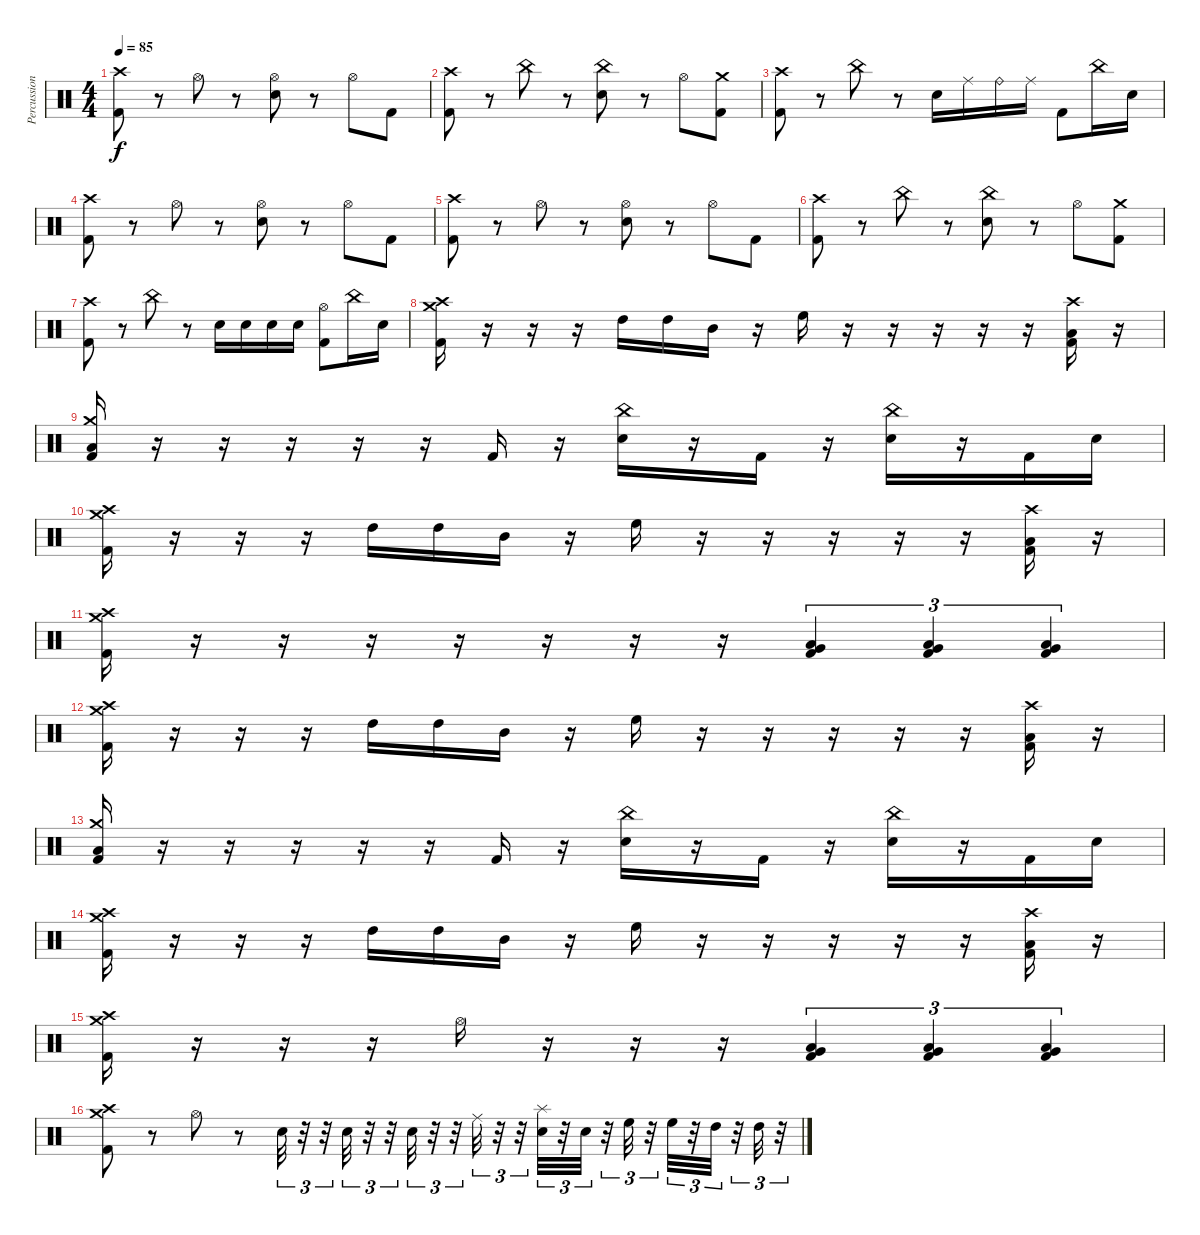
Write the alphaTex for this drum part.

\track ("Percussion" "Percussion") {instrument percussion}
\staff {score}
\articulation defaults
\ts (4 4)
\tempo 85
\clef neutral
\ks c
("Crash high (hit)" "Kick (hit) 2").8{dy f} r.8 "Hi-Hat (open)".8 r.8 ("Hi-Hat (open)" "Electric Snare (hit)").8 r.8 "Hi-Hat (open)".8 "Kick (hit) 2".8 |
("Crash high (hit)" "Kick (hit) 2").8 r.8 "China (hit)".8 r.8 ("China (hit)" "Electric Snare (hit)").8 r.8 "Hi-Hat (open)".8 ("Crash medium (hit)" "Kick (hit) 2").8 |
("Crash high (hit)" "Kick (hit) 2").8 r.8 "China (hit)".8 r.8 "Electric Snare (hit)".16 "Ride (middle)".16 "Ride (bell)".16 "Ride (middle)".16 "Kick (hit) 2".8 "China (hit)".16 "Electric Snare (hit)".16 |
("Crash high (hit)" "Kick (hit) 2").8 r.8 "Hi-Hat (open)".8 r.8 ("Hi-Hat (open)" "Electric Snare (hit)").8 r.8 "Hi-Hat (open)".8 "Kick (hit) 2".8 |
("Crash high (hit)" "Kick (hit) 2").8 r.8 "Hi-Hat (open)".8 r.8 ("Hi-Hat (open)" "Electric Snare (hit)").8 r.8 "Hi-Hat (open)".8 "Kick (hit) 2".8 |
("Crash high (hit)" "Kick (hit) 2").8 r.8 "China (hit)".8 r.8 ("China (hit)" "Electric Snare (hit)").8 r.8 "Hi-Hat (open)".8 ("Crash medium (hit)" "Kick (hit) 2").8 |
("Crash high (hit)" "Kick (hit) 2").8 r.8 "China (hit)".8 r.8 "Electric Snare (hit)".16 "Electric Snare (hit)".16 "Electric Snare (hit)".16 "Electric Snare (hit)".16 ("Hi-Hat (open)" "Kick (hit) 2").8 "China (hit)".16 "Electric Snare (hit)".16 |
("Crash medium (hit)" "Crash high (hit)" "Kick (hit) 2").16 r.16 r.16 r.16 "High Tom (hit)".16 "High Tom (hit)".16 "Mid Tom (hit)".16 r.16 "High Floor Tom (hit)".16 r.16 r.16 r.16 r.16 r.16 ("Crash high (hit)" "Low Floor Tom (hit)" "Kick (hit) 2").16 r.16 |
("Crash medium (hit)" "Low Floor Tom (hit)" "Kick (hit) 2").16 r.16 r.16 r.16 r.16 r.16 "Kick (hit) 2".16 r.16 ("China (hit)" "Electric Snare (hit)").16 r.16 "Kick (hit) 2".16 r.16 ("China (hit)" "Electric Snare (hit)").16 r.16 "Kick (hit) 2".16 "Electric Snare (hit)".16 |
("Crash medium (hit)" "Crash high (hit)" "Kick (hit) 2").16 r.16 r.16 r.16 "High Tom (hit)".16 "High Tom (hit)".16 "Mid Tom (hit)".16 r.16 "High Floor Tom (hit)".16 r.16 r.16 r.16 r.16 r.16 ("Crash high (hit)" "Low Floor Tom (hit)" "Kick (hit) 2").16 r.16 |
("Crash medium (hit)" "Crash high (hit)" "Kick (hit) 2").16 r.16 r.16 r.16 r.16 r.16 r.16 r.16 ("Very Low Tom (hit)" "Low Floor Tom (hit)" "Kick (hit) 2").4{tu (3 2)} ("Very Low Tom (hit)" "Low Floor Tom (hit)" "Kick (hit) 2").4{tu (3 2)} ("Very Low Tom (hit)" "Low Floor Tom (hit)" "Kick (hit) 2").4{tu (3 2)} |
("Crash medium (hit)" "Crash high (hit)" "Kick (hit) 2").16 r.16 r.16 r.16 "High Tom (hit)".16 "High Tom (hit)".16 "Mid Tom (hit)".16 r.16 "High Floor Tom (hit)".16 r.16 r.16 r.16 r.16 r.16 ("Crash high (hit)" "Low Floor Tom (hit)" "Kick (hit) 2").16 r.16 |
("Crash medium (hit)" "Low Floor Tom (hit)" "Kick (hit) 2").16 r.16 r.16 r.16 r.16 r.16 "Kick (hit) 2".16 r.16 ("China (hit)" "Electric Snare (hit)").16 r.16 "Kick (hit) 2".16 r.16 ("China (hit)" "Electric Snare (hit)").16 r.16 "Kick (hit) 2".16 "Electric Snare (hit)".16 |
("Crash medium (hit)" "Crash high (hit)" "Kick (hit) 2").16 r.16 r.16 r.16 "High Tom (hit)".16 "High Tom (hit)".16 "Mid Tom (hit)".16 r.16 "High Floor Tom (hit)".16 r.16 r.16 r.16 r.16 r.16 ("Crash high (hit)" "Low Floor Tom (hit)" "Kick (hit) 2").16 r.16 |
("Crash medium (hit)" "Crash high (hit)" "Kick (hit) 2").16 r.16 r.16 r.16 "Hi-Hat (open)".16 r.16 r.16 r.16 ("Very Low Tom (hit)" "Low Floor Tom (hit)" "Kick (hit) 2").4{tu (3 2)} ("Very Low Tom (hit)" "Low Floor Tom (hit)" "Kick (hit) 2").4{tu (3 2)} ("Very Low Tom (hit)" "Low Floor Tom (hit)" "Kick (hit) 2").4{tu (3 2)} |
("Crash high (hit)" "Crash medium (hit)" "Kick (hit) 2").8 r.8 "Hi-Hat (open)".8 r.8 "Electric Snare (hit)".32{tu (3 2)} r.32{tu (3 2)} r.32{tu (3 2)} "Electric Snare (hit)".32{tu (3 2)} r.32{tu (3 2)} r.32{tu (3 2)} "Electric Snare (hit)".32{tu (3 2)} r.32{tu (3 2)} r.32{tu (3 2)} "Ride (middle)".32{tu (3 2)} r.32{tu (3 2)} r.32{tu (3 2)} ("Splash (hit)" "Electric Snare (hit)").32{tu (3 2)} r.32{tu (3 2)} "Electric Snare (hit)".32{tu (3 2)} r.32{tu (3 2)} "High Floor Tom (hit)".32{tu (3 2)} r.32{tu (3 2)} "High Floor Tom (hit)".32{tu (3 2)} r.32{tu (3 2)} "High Tom (hit)".32{tu (3 2)} r.32{tu (3 2)} "High Tom (hit)".32{tu (3 2)} r.32{tu (3 2)}
